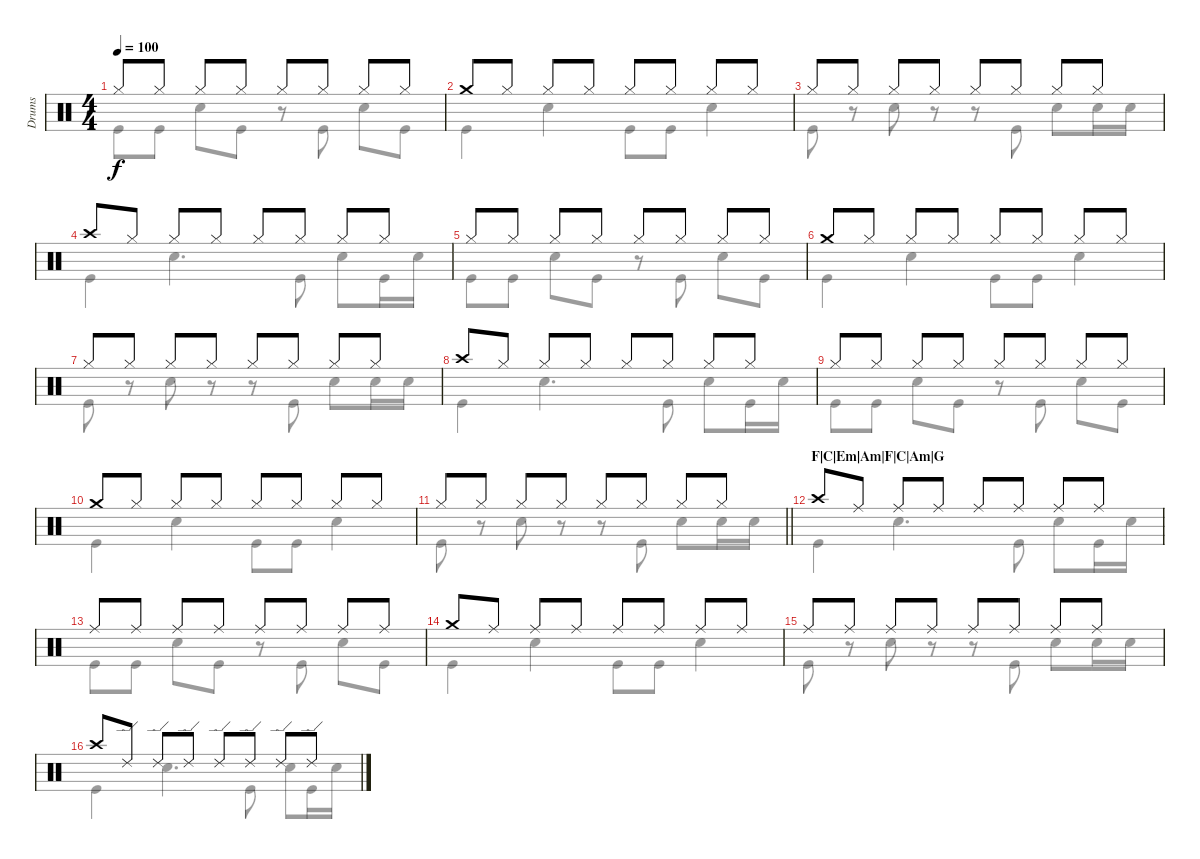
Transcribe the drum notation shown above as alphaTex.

\track ("Drums" "Drums") {instrument percussion}
\staff {score}
\articulation defaults
\voice
\ts (4 4)
\tempo 100
\clef neutral
\ks c "Hi-Hat (closed)".8{dy f} "Hi-Hat (closed)".8 "Hi-Hat (closed)".8 "Hi-Hat (closed)".8 "Hi-Hat (closed)".8 "Hi-Hat (closed)".8 "Hi-Hat (closed)".8 "Hi-Hat (closed)".8
|
"Crash medium (hit)".8 "Hi-Hat (closed)".8 "Hi-Hat (closed)".8 "Hi-Hat (closed)".8 "Hi-Hat (closed)".8 "Hi-Hat (closed)".8 "Hi-Hat (closed)".8 "Hi-Hat (closed)".8 |
"Hi-Hat (closed)".8 "Hi-Hat (closed)".8 "Hi-Hat (closed)".8 "Hi-Hat (closed)".8 "Hi-Hat (closed)".8 "Hi-Hat (closed)".8 "Hi-Hat (closed)".8 "Hi-Hat (closed)".8 |
"Crash high (hit)".8 "Hi-Hat (closed)".8 "Hi-Hat (closed)".8 "Hi-Hat (closed)".8 "Hi-Hat (closed)".8 "Hi-Hat (closed)".8 "Hi-Hat (closed)".8 "Hi-Hat (closed)".8 |
"Hi-Hat (closed)".8 "Hi-Hat (closed)".8 "Hi-Hat (closed)".8 "Hi-Hat (closed)".8 "Hi-Hat (closed)".8 "Hi-Hat (closed)".8 "Hi-Hat (closed)".8 "Hi-Hat (closed)".8 |
"Crash medium (hit)".8 "Hi-Hat (closed)".8 "Hi-Hat (closed)".8 "Hi-Hat (closed)".8 "Hi-Hat (closed)".8 "Hi-Hat (closed)".8 "Hi-Hat (closed)".8 "Hi-Hat (closed)".8 |
"Hi-Hat (closed)".8 "Hi-Hat (closed)".8 "Hi-Hat (closed)".8 "Hi-Hat (closed)".8 "Hi-Hat (closed)".8 "Hi-Hat (closed)".8 "Hi-Hat (closed)".8 "Hi-Hat (closed)".8 |
"Crash high (hit)".8 "Hi-Hat (closed)".8 "Hi-Hat (closed)".8 "Hi-Hat (closed)".8 "Hi-Hat (closed)".8 "Hi-Hat (closed)".8 "Hi-Hat (closed)".8 "Hi-Hat (closed)".8 |
"Hi-Hat (closed)".8 "Hi-Hat (closed)".8 "Hi-Hat (closed)".8 "Hi-Hat (closed)".8 "Hi-Hat (closed)".8 "Hi-Hat (closed)".8 "Hi-Hat (closed)".8 "Hi-Hat (closed)".8 |
"Crash medium (hit)".8 "Hi-Hat (closed)".8 "Hi-Hat (closed)".8 "Hi-Hat (closed)".8 "Hi-Hat (closed)".8 "Hi-Hat (closed)".8 "Hi-Hat (closed)".8 "Hi-Hat (closed)".8 |
\barLineRight lightlight "Hi-Hat (closed)".8 "Hi-Hat (closed)".8 "Hi-Hat (closed)".8 "Hi-Hat (closed)".8 "Hi-Hat (closed)".8 "Hi-Hat (closed)".8 "Hi-Hat (closed)".8 "Hi-Hat (closed)".8
|
\section ("" "F|C|Em|Am|F|C|Am|G")
"Crash high (hit)".8 "Ride (middle)".8 "Ride (middle)".8 "Ride (middle)".8 "Ride (middle)".8 "Ride (middle)".8 "Ride (middle)".8 "Ride (middle)".8 |
"Ride (middle)".8 "Ride (middle)".8 "Ride (middle)".8 "Ride (middle)".8 "Ride (middle)".8 "Ride (middle)".8 "Ride (middle)".8 "Ride (middle)".8 |
"Crash medium (hit)".8 "Ride (middle)".8 "Ride (middle)".8 "Ride (middle)".8 "Ride (middle)".8 "Ride (middle)".8 "Ride (middle)".8 "Ride (middle)".8 |
"Ride (middle)".8 "Ride (middle)".8 "Ride (middle)".8 "Ride (middle)".8 "Ride (middle)".8 "Ride (middle)".8 "Ride (middle)".8 "Ride (middle)".8 |
"Crash high (hit)".8 "Ride (edge) 2".8 "Ride (edge) 2".8 "Ride (edge) 2".8 "Ride (edge) 2".8 "Ride (edge) 2".8 "Ride (edge) 2".8 "Ride (edge) 2".8
\voice
\clef neutral
\ottava regular
\simile none
\ks c "Kick (hit)".8{dy f} "Kick (hit)".8 "Snare (hit) 2".8 "Kick (hit)".8
r.8 "Kick (hit)".8 "Snare (hit) 2".8 "Kick (hit)".8 |
"Kick (hit)".4 "Snare (hit) 2".4 "Kick (hit)".8 "Kick (hit)".8 "Snare (hit) 2".4 |
"Kick (hit)".8 r.8 "Snare (hit) 2".8 r.8 r.8 "Kick (hit)".8 "Snare (hit) 2".8 "Snare (hit) 2".16 "Snare (hit) 2".16 |
"Kick (hit)".4 "Snare (hit) 2".4{d} "Kick (hit)".8 "Snare (hit) 2".8 "Kick (hit)".16 "Snare (hit) 2".16 |
"Kick (hit)".8 "Kick (hit)".8 "Snare (hit) 2".8 "Kick (hit)".8 r.8 "Kick (hit)".8 "Snare (hit) 2".8 "Kick (hit)".8 |
"Kick (hit)".4 "Snare (hit) 2".4 "Kick (hit)".8 "Kick (hit)".8 "Snare (hit) 2".4 |
"Kick (hit)".8 r.8 "Snare (hit) 2".8 r.8 r.8 "Kick (hit)".8 "Snare (hit) 2".8 "Snare (hit) 2".16 "Snare (hit) 2".16 |
"Kick (hit)".4 "Snare (hit) 2".4{d} "Kick (hit)".8 "Snare (hit) 2".8 "Kick (hit)".16 "Snare (hit) 2".16 |
"Kick (hit)".8 "Kick (hit)".8 "Snare (hit) 2".8 "Kick (hit)".8 r.8 "Kick (hit)".8 "Snare (hit) 2".8 "Kick (hit)".8 |
"Kick (hit)".4 "Snare (hit) 2".4 "Kick (hit)".8 "Kick (hit)".8 "Snare (hit) 2".4 |
\barLineRight lightlight "Kick (hit)".8
r.8 "Snare (hit) 2".8 r.8 r.8 "Kick (hit)".8 "Snare (hit) 2".8 "Snare (hit) 2".16 "Snare (hit) 2".16 |
"Kick (hit)".4 "Snare (hit) 2".4{d} "Kick (hit)".8 "Snare (hit) 2".8 "Kick (hit)".16 "Snare (hit) 2".16 |
"Kick (hit)".8 "Kick (hit)".8 "Snare (hit) 2".8 "Kick (hit)".8 r.8 "Kick (hit)".8 "Snare (hit) 2".8 "Kick (hit)".8 |
"Kick (hit)".4 "Snare (hit) 2".4 "Kick (hit)".8 "Kick (hit)".8 "Snare (hit) 2".4 |
"Kick (hit)".8 r.8 "Snare (hit) 2".8 r.8 r.8 "Kick (hit)".8 "Snare (hit) 2".8 "Snare (hit) 2".16 "Snare (hit) 2".16 |
"Kick (hit)".4 "Snare (hit) 2".4{d} "Kick (hit)".8 "Snare (hit) 2".8 "Kick (hit)".16 "Snare (hit) 2".16
